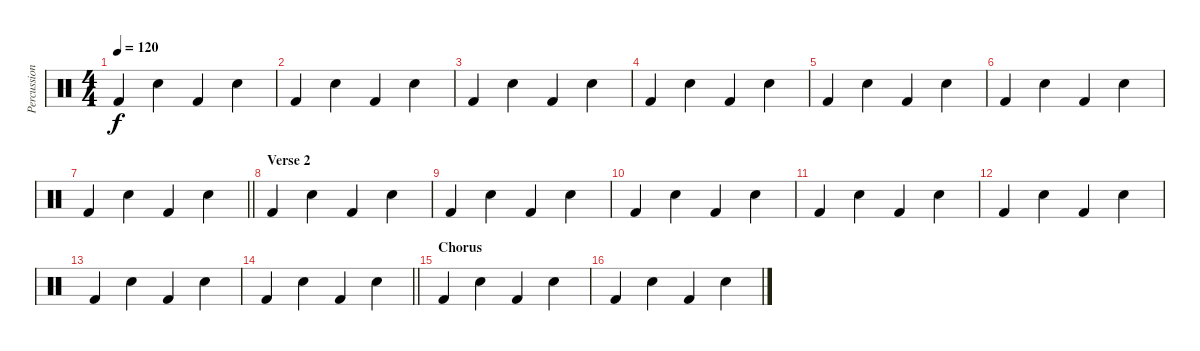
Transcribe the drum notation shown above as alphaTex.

\track ("Percussion" "Percussion") {instrument percussion}
\staff {score}
\articulation defaults
\ts (4 4)
\tempo 120
\clef neutral
\ks c "Kick (hit) 2".4{dy f} "Snare (hit) 2".4 "Kick (hit) 2".4 "Snare (hit) 2".4
|
"Kick (hit) 2".4 "Snare (hit) 2".4 "Kick (hit) 2".4 "Snare (hit) 2".4 |
"Kick (hit) 2".4 "Snare (hit) 2".4 "Kick (hit) 2".4 "Snare (hit) 2".4 |
"Kick (hit) 2".4 "Snare (hit) 2".4 "Kick (hit) 2".4 "Snare (hit) 2".4 |
"Kick (hit) 2".4 "Snare (hit) 2".4 "Kick (hit) 2".4 "Snare (hit) 2".4 |
"Kick (hit) 2".4 "Snare (hit) 2".4 "Kick (hit) 2".4 "Snare (hit) 2".4 |
\barLineRight lightlight "Kick (hit) 2".4 "Snare (hit) 2".4 "Kick (hit) 2".4 "Snare (hit) 2".4
|
\section ("" "Verse 2")
"Kick (hit) 2".4 "Snare (hit) 2".4 "Kick (hit) 2".4 "Snare (hit) 2".4 |
"Kick (hit) 2".4 "Snare (hit) 2".4 "Kick (hit) 2".4 "Snare (hit) 2".4 |
"Kick (hit) 2".4 "Snare (hit) 2".4 "Kick (hit) 2".4 "Snare (hit) 2".4 |
"Kick (hit) 2".4 "Snare (hit) 2".4 "Kick (hit) 2".4 "Snare (hit) 2".4 |
"Kick (hit) 2".4 "Snare (hit) 2".4 "Kick (hit) 2".4 "Snare (hit) 2".4 |
"Kick (hit) 2".4 "Snare (hit) 2".4 "Kick (hit) 2".4 "Snare (hit) 2".4 |
\barLineRight lightlight "Kick (hit) 2".4 "Snare (hit) 2".4 "Kick (hit) 2".4 "Snare (hit) 2".4
|
\section ("" "Chorus")
"Kick (hit) 2".4 "Snare (hit) 2".4 "Kick (hit) 2".4 "Snare (hit) 2".4 |
"Kick (hit) 2".4 "Snare (hit) 2".4 "Kick (hit) 2".4 "Snare (hit) 2".4
